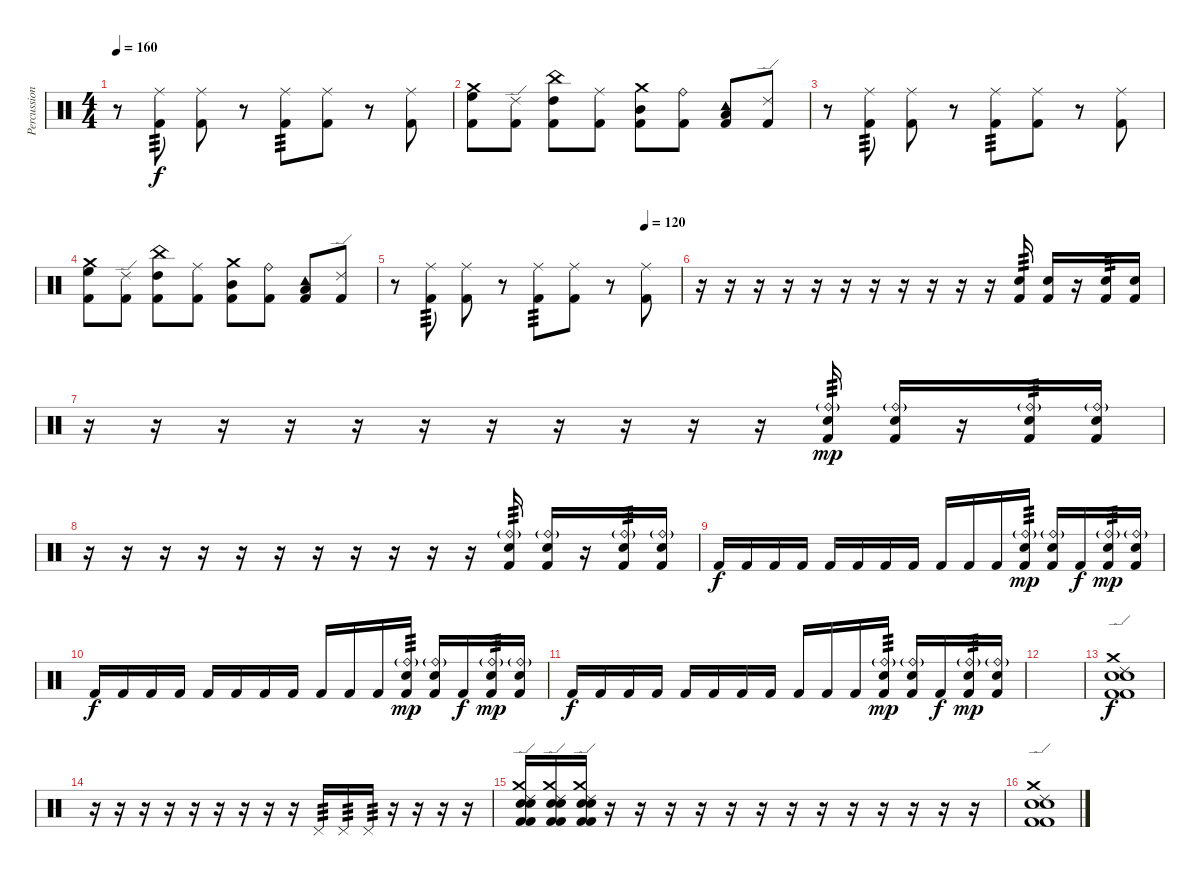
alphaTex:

\track ("Percussions" "Percussion") {instrument percussion}
\staff {score}
\articulation defaults
\ts (4 4)
\tempo 160
\clef neutral
\ks c
r.8{dy f} ("Ride (middle)" "Kick (hit) 2").8{tp 3} ("Ride (middle)" "Kick (hit) 2").8 r.8 ("Ride (middle)" "Kick (hit) 2").8{tp 3} ("Ride (middle)" "Kick (hit) 2").8 r.8 ("Ride (middle)" "Kick (hit) 2").8 |
("High Floor Tom (hit)" "Crash medium (hit)" "Kick (hit) 2").8 ("Ride (edge) 2" "Kick (hit) 2").8 ("High Tom (hit)" "China (hit)" "Kick (hit) 2").8 ("Ride (middle)" "Kick (hit) 2").8 ("Mid Tom (hit)" "Crash medium (hit)" "Kick (hit) 2").8 ("Ride (bell)" "Kick (hit) 2").8 ("Low Tom (hit)" "Tambourine (hit)" "Kick (hit) 2").8 ("Ride (edge) 2" "Kick (hit) 2").8 |
r.8 ("Ride (middle)" "Kick (hit) 2").8{tp 3} ("Ride (middle)" "Kick (hit) 2").8 r.8 ("Ride (middle)" "Kick (hit) 2").8{tp 3} ("Ride (middle)" "Kick (hit) 2").8 r.8 ("Ride (middle)" "Kick (hit) 2").8 |
("High Floor Tom (hit)" "Crash medium (hit)" "Kick (hit) 2").8 ("Ride (edge) 2" "Kick (hit) 2").8 ("High Tom (hit)" "China (hit)" "Kick (hit) 2").8 ("Ride (middle)" "Kick (hit) 2").8 ("Mid Tom (hit)" "Crash medium (hit)" "Kick (hit) 2").8 ("Ride (bell)" "Kick (hit) 2").8 ("Low Tom (hit)" "Tambourine (hit)" "Kick (hit) 2").8 ("Ride (edge) 2" "Kick (hit) 2").8 |
\tempo (120 0.875)
r.8 ("Ride (middle)" "Kick (hit) 2").8{tp 3} ("Ride (middle)" "Kick (hit) 2").8 r.8 ("Ride (middle)" "Kick (hit) 2").8{tp 3} ("Ride (middle)" "Kick (hit) 2").8 r.8 ("Ride (middle)" "Kick (hit) 2").8 |
r.16 r.16 r.16 r.16 r.16 r.16 r.16 r.16 r.16 r.16 r.16 ("Snare (hit) 2" "Kick (hit) 2").16{tp 3} ("Snare (hit) 2" "Kick (hit) 2").16 r.16 ("Snare (hit) 2" "Kick (hit) 2").16{tp 3} ("Snare (hit) 2" "Kick (hit) 2").16 |
r.16 r.16 r.16 r.16 r.16 r.16 r.16 r.16 r.16 r.16 r.16 ("Ride (bell)"{g} "Snare (hit) 2" "Kick (hit) 2").16{tp 3 dy mp} ("Ride (bell)"{g} "Snare (hit) 2" "Kick (hit) 2").16 r.16 ("Ride (bell)"{g} "Snare (hit) 2" "Kick (hit) 2").16{tp 3} ("Ride (bell)"{g} "Snare (hit) 2" "Kick (hit) 2").16 |
r.16 r.16 r.16 r.16 r.16 r.16 r.16 r.16 r.16 r.16 r.16 ("Ride (bell)"{g} "Snare (hit) 2" "Kick (hit) 2").16{tp 3} ("Ride (bell)"{g} "Snare (hit) 2" "Kick (hit) 2").16 r.16 ("Ride (bell)"{g} "Snare (hit) 2" "Kick (hit) 2").16{tp 3} ("Ride (bell)"{g} "Snare (hit) 2" "Kick (hit) 2").16 |
"Kick (hit) 2".16{dy f} "Kick (hit) 2".16 "Kick (hit) 2".16 "Kick (hit) 2".16 "Kick (hit) 2".16 "Kick (hit) 2".16 "Kick (hit) 2".16 "Kick (hit) 2".16 "Kick (hit) 2".16 "Kick (hit) 2".16 "Kick (hit) 2".16 ("Ride (bell)"{g} "Snare (hit) 2" "Kick (hit) 2").16{tp 3 dy mp} ("Ride (bell)"{g} "Snare (hit) 2" "Kick (hit) 2").16 "Kick (hit) 2".16{dy f} ("Ride (bell)"{g} "Snare (hit) 2" "Kick (hit) 2").16{tp 3 dy mp} ("Ride (bell)"{g} "Snare (hit) 2" "Kick (hit) 2").16 |
"Kick (hit) 2".16{dy f} "Kick (hit) 2".16 "Kick (hit) 2".16 "Kick (hit) 2".16 "Kick (hit) 2".16 "Kick (hit) 2".16 "Kick (hit) 2".16 "Kick (hit) 2".16 "Kick (hit) 2".16 "Kick (hit) 2".16 "Kick (hit) 2".16 ("Ride (bell)"{g} "Snare (hit) 2" "Kick (hit) 2").16{tp 3 dy mp} ("Ride (bell)"{g} "Snare (hit) 2" "Kick (hit) 2").16 "Kick (hit) 2".16{dy f} ("Ride (bell)"{g} "Snare (hit) 2" "Kick (hit) 2").16{tp 3 dy mp} ("Ride (bell)"{g} "Snare (hit) 2" "Kick (hit) 2").16 |
"Kick (hit) 2".16{dy f} "Kick (hit) 2".16 "Kick (hit) 2".16 "Kick (hit) 2".16 "Kick (hit) 2".16 "Kick (hit) 2".16 "Kick (hit) 2".16 "Kick (hit) 2".16 "Kick (hit) 2".16 "Kick (hit) 2".16 "Kick (hit) 2".16 ("Ride (bell)"{g} "Snare (hit) 2" "Kick (hit) 2").16{tp 3 dy mp} ("Ride (bell)"{g} "Snare (hit) 2" "Kick (hit) 2").16 "Kick (hit) 2".16{dy f} ("Ride (bell)"{g} "Snare (hit) 2" "Kick (hit) 2").16{tp 3 dy mp} ("Ride (bell)"{g} "Snare (hit) 2" "Kick (hit) 2").16 |
|
("Snare (hit) 2" "Snare (hit) 2" "Ride (edge) 2" "Crash medium (hit)" "Kick (hit) 2" "Kick (hit) 2").1{dy f} |
r.16 r.16 r.16 r.16 r.16 r.16 r.16 r.16 r.16 "Pedal Hi-Hat (hit)".16{tp 3} "Pedal Hi-Hat (hit)".16{tp 3} "Pedal Hi-Hat (hit)".16{tp 3} r.16 r.16 r.16 r.16 |
("Snare (hit) 2" "Snare (hit) 2" "Ride (edge) 2" "Crash medium (hit)" "Kick (hit) 2" "Kick (hit) 2").16 ("Snare (hit) 2" "Snare (hit) 2" "Ride (edge) 2" "Crash medium (hit)" "Kick (hit) 2" "Kick (hit) 2").16 ("Snare (hit) 2" "Snare (hit) 2" "Ride (edge) 2" "Crash medium (hit)" "Kick (hit) 2" "Kick (hit) 2").16 r.16 r.16 r.16 r.16 r.16 r.16 r.16 r.16 r.16 r.16 r.16 r.16 r.16 |
("Snare (hit) 2" "Snare (hit) 2" "Ride (edge) 2" "Crash medium (hit)" "Kick (hit) 2" "Kick (hit) 2").1
